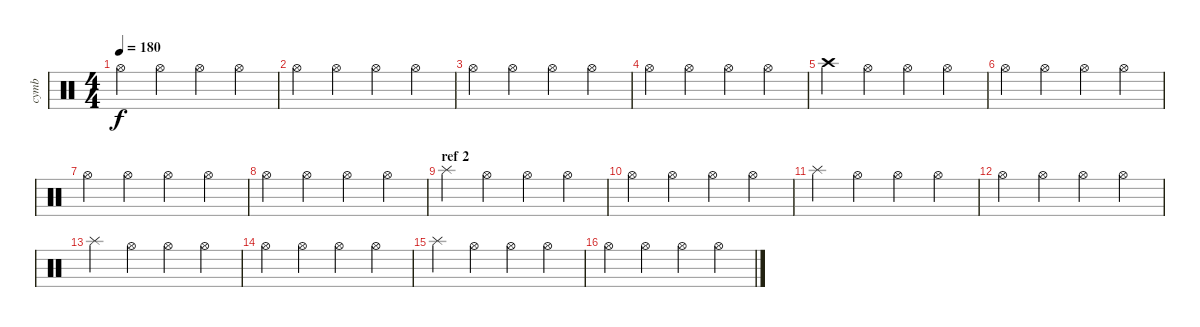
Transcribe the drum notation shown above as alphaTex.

\track ("cymb" "cymb") {instrument percussion}
\staff {score}
\articulation defaults
\ts (4 4)
\tempo 180
\clef neutral
\ks c "Hi-Hat (open)".4{dy f} "Hi-Hat (open)".4 "Hi-Hat (open)".4 "Hi-Hat (open)".4
|
"Hi-Hat (open)".4 "Hi-Hat (open)".4 "Hi-Hat (open)".4 "Hi-Hat (open)".4 |
"Hi-Hat (open)".4 "Hi-Hat (open)".4 "Hi-Hat (open)".4 "Hi-Hat (open)".4 |
"Hi-Hat (open)".4 "Hi-Hat (open)".4 "Hi-Hat (open)".4 "Hi-Hat (open)".4 |
"Crash high (hit)".4 "Hi-Hat (open)".4 "Hi-Hat (open)".4 "Hi-Hat (open)".4 |
"Hi-Hat (open)".4 "Hi-Hat (open)".4 "Hi-Hat (open)".4 "Hi-Hat (open)".4 |
"Hi-Hat (open)".4 "Hi-Hat (open)".4 "Hi-Hat (open)".4 "Hi-Hat (open)".4 |
"Hi-Hat (open)".4 "Hi-Hat (open)".4 "Hi-Hat (open)".4 "Hi-Hat (open)".4 |
\section ("" "ref 2")
"Splash (hit)".4 "Hi-Hat (open)".4 "Hi-Hat (open)".4 "Hi-Hat (open)".4 |
"Hi-Hat (open)".4 "Hi-Hat (open)".4 "Hi-Hat (open)".4 "Hi-Hat (open)".4 |
"Splash (hit)".4 "Hi-Hat (open)".4 "Hi-Hat (open)".4 "Hi-Hat (open)".4 |
"Hi-Hat (open)".4 "Hi-Hat (open)".4 "Hi-Hat (open)".4 "Hi-Hat (open)".4 |
"Splash (hit)".4 "Hi-Hat (open)".4 "Hi-Hat (open)".4 "Hi-Hat (open)".4 |
"Hi-Hat (open)".4 "Hi-Hat (open)".4 "Hi-Hat (open)".4 "Hi-Hat (open)".4 |
"Splash (hit)".4 "Hi-Hat (open)".4 "Hi-Hat (open)".4 "Hi-Hat (open)".4 |
"Hi-Hat (open)".4 "Hi-Hat (open)".4 "Hi-Hat (open)".4 "Hi-Hat (open)".4
